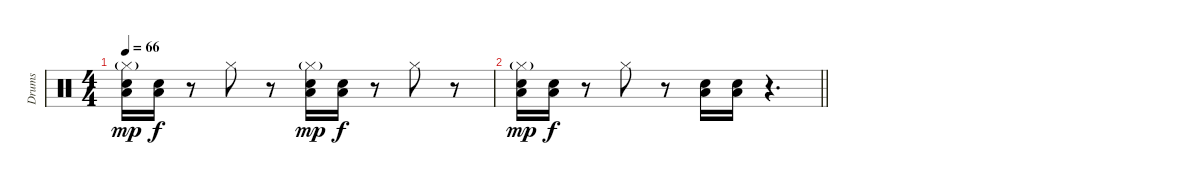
\track ("Drums" "Drums") {instrument percussion}
\staff {score}
\articulation defaults
\ts (4 4)
\tempo 66
\clef neutral
\ks c
("Hi-Hat (closed)"{g} "Low Tom (hit)" "Electric Snare (hit)").16{dy mp} ("Low Tom (hit)" "Electric Snare (hit)").16{dy f} r.8 "Hi-Hat (closed)".8 r.8 ("Hi-Hat (closed)"{g} "Low Tom (hit)" "Electric Snare (hit)").16{dy mp} ("Low Tom (hit)" "Electric Snare (hit)").16{dy f} r.8 "Hi-Hat (closed)".8 r.8 |
\barLineRight lightlight
("Hi-Hat (closed)"{g} "Low Tom (hit)" "Electric Snare (hit)").16{dy mp} ("Low Tom (hit)" "Electric Snare (hit)").16{dy f} r.8 "Hi-Hat (closed)".8 r.8 ("Low Tom (hit)" "Electric Snare (hit)").16 ("Low Tom (hit)" "Electric Snare (hit)").16 r.4{d}
